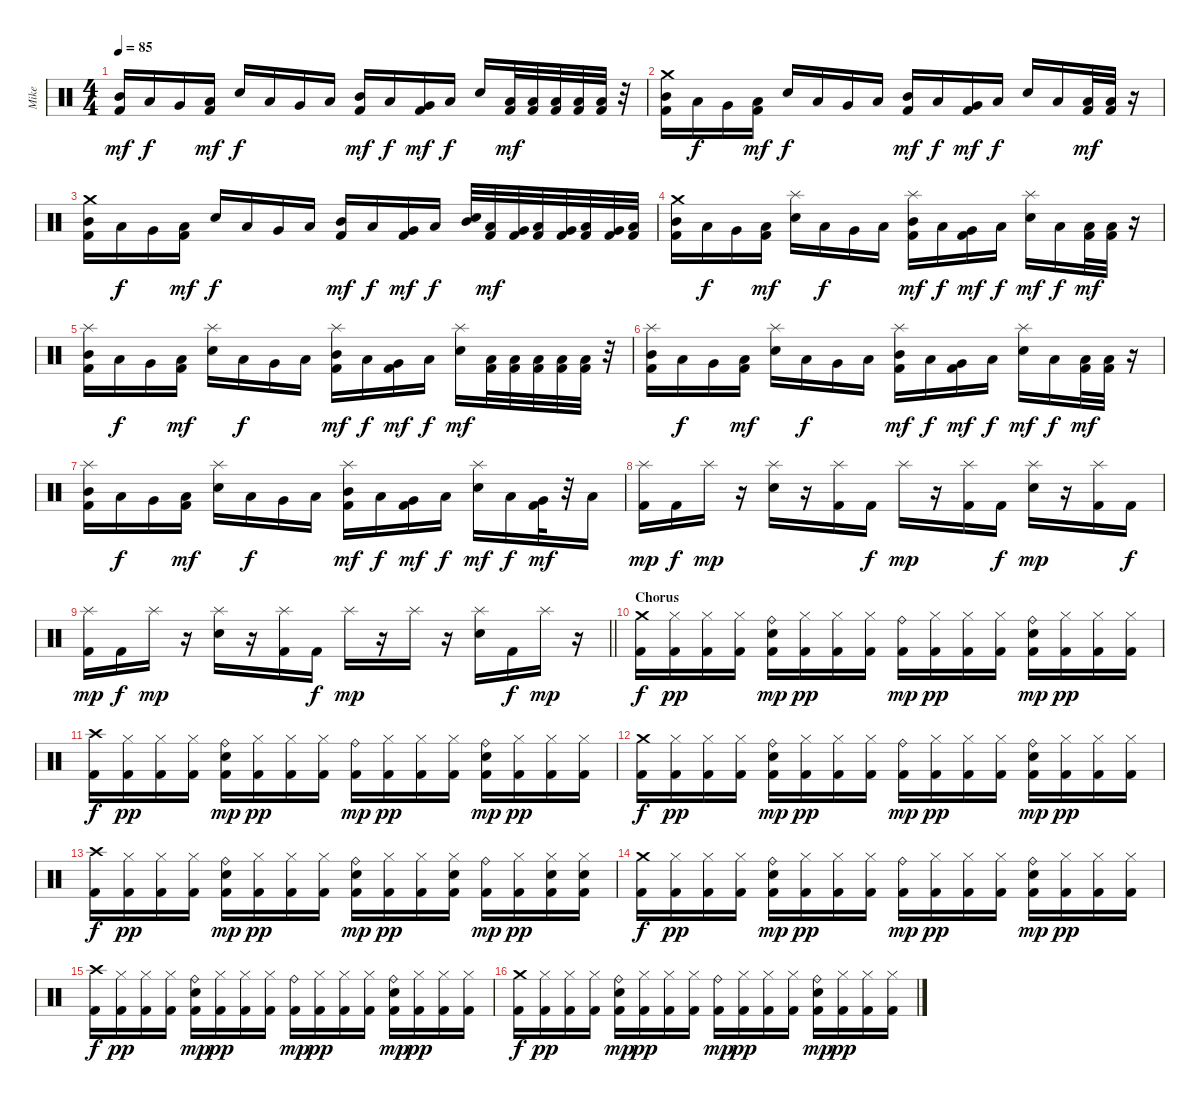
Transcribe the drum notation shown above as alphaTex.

\track ("Mike" "Mike") {instrument percussion}
\staff {score}
\articulation defaults
\ts (4 4)
\tempo 85
\clef neutral
\ks c
("Mid Tom (hit)" "Kick (hit) 2").16{dy mf} "Low Tom (hit)".16{dy f} "Very Low Tom (hit)".16 ("Low Tom (hit)" "Kick (hit) 2").16{dy mf} "Snare (hit) 2".16{dy f} "Low Tom (hit)".16 "Very Low Tom (hit)".16 "Low Floor Tom (hit)".16 ("Mid Tom (hit)" "Kick (hit) 2").16{dy mf} "Low Tom (hit)".16{dy f} ("Very Low Tom (hit)" "Kick (hit) 2").16{dy mf} "Low Tom (hit)".16{dy f} "Snare (hit) 2".16 ("Low Floor Tom (hit)" "Kick (hit) 2").32{dy mf} ("Low Floor Tom (hit)" "Kick (hit) 2").32 ("Low Floor Tom (hit)" "Kick (hit) 2").32 ("Low Floor Tom (hit)" "Kick (hit) 2").32 ("Low Floor Tom (hit)" "Kick (hit) 2").32 r.32 |
("Crash medium (hit)" "Mid Tom (hit)" "Kick (hit) 2").16 "Low Tom (hit)".16{dy f} "Very Low Tom (hit)".16 ("Low Tom (hit)" "Kick (hit) 2").16{dy mf} "Snare (hit) 2".16{dy f} "Low Tom (hit)".16 "Very Low Tom (hit)".16 "Low Floor Tom (hit)".16 ("Mid Tom (hit)" "Kick (hit) 2").16{dy mf} "Low Tom (hit)".16{dy f} ("Very Low Tom (hit)" "Kick (hit) 2").16{dy mf} "Low Tom (hit)".16{dy f} "Snare (hit) 2".16 "Low Tom (hit)".16 ("Low Floor Tom (hit)" "Kick (hit) 2").32{dy mf} ("Low Floor Tom (hit)" "Kick (hit) 2").32 r.16 |
("Crash medium (hit)" "Mid Tom (hit)" "Kick (hit) 2").16 "Low Tom (hit)".16{dy f} "Very Low Tom (hit)".16 ("Low Tom (hit)" "Kick (hit) 2").16{dy mf} "Snare (hit) 2".16{dy f} "Low Tom (hit)".16 "Very Low Tom (hit)".16 "Low Floor Tom (hit)".16 ("Mid Tom (hit)" "Kick (hit) 2").16{dy mf} "Low Tom (hit)".16{dy f} ("Very Low Tom (hit)" "Kick (hit) 2").16{dy mf} "Low Tom (hit)".16{dy f} ("Mid Tom (hit)" "Snare (hit) 2").32 ("Low Tom (hit)" "Kick (hit) 2").32{dy mf} ("Very Low Tom (hit)" "Kick (hit) 2").32 ("Low Tom (hit)" "Kick (hit) 2").32 ("Very Low Tom (hit)" "Kick (hit) 2").32 ("Low Floor Tom (hit)" "Kick (hit) 2").32 ("Very Low Tom (hit)" "Kick (hit) 2").32 ("Low Floor Tom (hit)" "Kick (hit) 2").32 |
("Crash medium (hit)" "Mid Tom (hit)" "Kick (hit) 2").16 "Low Tom (hit)".16{dy f} "Very Low Tom (hit)".16 ("Low Tom (hit)" "Kick (hit) 2").16{dy mf} ("Splash (hit)" "Snare (hit) 2").16 "Low Tom (hit)".16{dy f} "Very Low Tom (hit)".16 "Low Floor Tom (hit)".16 ("Splash (hit)" "Mid Tom (hit)" "Kick (hit) 2").16{dy mf} "Low Tom (hit)".16{dy f} ("Very Low Tom (hit)" "Kick (hit) 2").16{dy mf} "Low Tom (hit)".16{dy f} ("Splash (hit)" "Snare (hit) 2").16{dy mf} "Low Tom (hit)".16{dy f} ("Low Floor Tom (hit)" "Kick (hit) 2").32{dy mf} ("Low Floor Tom (hit)" "Kick (hit) 2").32 r.16 |
("Splash (hit)" "Mid Tom (hit)" "Kick (hit) 2").16 "Low Tom (hit)".16{dy f} "Very Low Tom (hit)".16 ("Low Tom (hit)" "Kick (hit) 2").16{dy mf} ("Splash (hit)" "Snare (hit) 2").16 "Low Tom (hit)".16{dy f} "Very Low Tom (hit)".16 "Low Floor Tom (hit)".16 ("Splash (hit)" "Mid Tom (hit)" "Kick (hit) 2").16{dy mf} "Low Tom (hit)".16{dy f} ("Very Low Tom (hit)" "Kick (hit) 2").16{dy mf} "Low Tom (hit)".16{dy f} ("Splash (hit)" "Snare (hit) 2").16{dy mf} ("Low Floor Tom (hit)" "Kick (hit) 2").32 ("Low Floor Tom (hit)" "Kick (hit) 2").32 ("Low Floor Tom (hit)" "Kick (hit) 2").32 ("Low Floor Tom (hit)" "Kick (hit) 2").32 ("Low Floor Tom (hit)" "Kick (hit) 2").32 r.32 |
("Splash (hit)" "Mid Tom (hit)" "Kick (hit) 2").16 "Low Tom (hit)".16{dy f} "Very Low Tom (hit)".16 ("Low Tom (hit)" "Kick (hit) 2").16{dy mf} ("Splash (hit)" "Snare (hit) 2").16 "Low Tom (hit)".16{dy f} "Very Low Tom (hit)".16 "Low Floor Tom (hit)".16 ("Splash (hit)" "Mid Tom (hit)" "Kick (hit) 2").16{dy mf} "Low Tom (hit)".16{dy f} ("Very Low Tom (hit)" "Kick (hit) 2").16{dy mf} "Low Tom (hit)".16{dy f} ("Splash (hit)" "Snare (hit) 2").16{dy mf} "Low Tom (hit)".16{dy f} ("Low Floor Tom (hit)" "Kick (hit) 2").32{dy mf} ("Low Floor Tom (hit)" "Kick (hit) 2").32 r.16 |
("Splash (hit)" "Mid Tom (hit)" "Kick (hit) 2").16 "Low Tom (hit)".16{dy f} "Very Low Tom (hit)".16 ("Low Tom (hit)" "Kick (hit) 2").16{dy mf} ("Splash (hit)" "Snare (hit) 2").16 "Low Tom (hit)".16{dy f} "Very Low Tom (hit)".16 "Low Floor Tom (hit)".16 ("Splash (hit)" "Mid Tom (hit)" "Kick (hit) 2").16{dy mf} "Low Tom (hit)".16{dy f} ("Very Low Tom (hit)" "Kick (hit) 2").16{dy mf} "Low Tom (hit)".16{dy f} ("Splash (hit)" "Snare (hit) 2").16{dy mf} "Low Tom (hit)".16{dy f} ("Very Low Tom (hit)" "Kick (hit) 2").32{dy mf} r.32 "Low Floor Tom (hit)".16 |
("Splash (hit)" "Kick (hit) 2").16{dy mp} "Kick (hit) 2".16{dy f} "Splash (hit)".16{dy mp} r.16 ("Splash (hit)" "Snare (hit) 2").16 r.16 ("Splash (hit)" "Kick (hit) 2").16 "Kick (hit) 2".16{dy f} "Splash (hit)".16{dy mp} r.16 ("Splash (hit)" "Kick (hit) 2").16 "Kick (hit) 2".16{dy f} ("Splash (hit)" "Snare (hit) 2").16{dy mp} r.16 ("Splash (hit)" "Kick (hit) 2").16 "Kick (hit) 2".16{dy f} |
\barLineRight lightlight
("Splash (hit)" "Kick (hit) 2").16{dy mp} "Kick (hit) 2".16{dy f} "Splash (hit)".16{dy mp} r.16 ("Splash (hit)" "Snare (hit) 2").16 r.16 ("Splash (hit)" "Kick (hit) 2").16 "Kick (hit) 2".16{dy f} "Splash (hit)".16{dy mp} r.16 "Splash (hit)".16 r.16 ("Splash (hit)" "Snare (hit) 2").16 "Kick (hit) 2".16{dy f} "Splash (hit)".16{dy mp} r.16 |
\section ("" "Chorus")
("Crash medium (hit)" "Kick (hit) 2").16{dy f} ("Hi-Hat (closed)" "Kick (hit) 2").16{dy pp} ("Hi-Hat (closed)" "Kick (hit) 2").16 ("Hi-Hat (closed)" "Kick (hit) 2").16 ("Ride (bell)" "Snare (hit) 2" "Kick (hit) 2").16{dy mp} ("Hi-Hat (closed)" "Kick (hit) 2").16{dy pp} ("Hi-Hat (closed)" "Kick (hit) 2").16 ("Hi-Hat (closed)" "Kick (hit) 2").16 ("Ride (bell)" "Kick (hit) 2").16{dy mp} ("Hi-Hat (closed)" "Kick (hit) 2").16{dy pp} ("Hi-Hat (closed)" "Kick (hit) 2").16 ("Hi-Hat (closed)" "Kick (hit) 2").16 ("Ride (bell)" "Snare (hit) 2" "Kick (hit) 2").16{dy mp} ("Hi-Hat (closed)" "Kick (hit) 2").16{dy pp} ("Hi-Hat (closed)" "Kick (hit) 2").16 ("Hi-Hat (closed)" "Kick (hit) 2").16 |
("Crash high (hit)" "Kick (hit) 2").16{dy f} ("Hi-Hat (closed)" "Kick (hit) 2").16{dy pp} ("Hi-Hat (closed)" "Kick (hit) 2").16 ("Hi-Hat (closed)" "Kick (hit) 2").16 ("Ride (bell)" "Snare (hit) 2" "Kick (hit) 2").16{dy mp} ("Hi-Hat (closed)" "Kick (hit) 2").16{dy pp} ("Hi-Hat (closed)" "Kick (hit) 2").16 ("Hi-Hat (closed)" "Kick (hit) 2").16 ("Ride (bell)" "Kick (hit) 2").16{dy mp} ("Hi-Hat (closed)" "Kick (hit) 2").16{dy pp} ("Hi-Hat (closed)" "Kick (hit) 2").16 ("Hi-Hat (closed)" "Kick (hit) 2").16 ("Ride (bell)" "Snare (hit) 2" "Kick (hit) 2").16{dy mp} ("Hi-Hat (closed)" "Kick (hit) 2").16{dy pp} ("Hi-Hat (closed)" "Kick (hit) 2").16 ("Hi-Hat (closed)" "Kick (hit) 2").16 |
("Crash medium (hit)" "Kick (hit) 2").16{dy f} ("Hi-Hat (closed)" "Kick (hit) 2").16{dy pp} ("Hi-Hat (closed)" "Kick (hit) 2").16 ("Hi-Hat (closed)" "Kick (hit) 2").16 ("Ride (bell)" "Snare (hit) 2" "Kick (hit) 2").16{dy mp} ("Hi-Hat (closed)" "Kick (hit) 2").16{dy pp} ("Hi-Hat (closed)" "Kick (hit) 2").16 ("Hi-Hat (closed)" "Kick (hit) 2").16 ("Ride (bell)" "Kick (hit) 2").16{dy mp} ("Hi-Hat (closed)" "Kick (hit) 2").16{dy pp} ("Hi-Hat (closed)" "Kick (hit) 2").16 ("Hi-Hat (closed)" "Kick (hit) 2").16 ("Ride (bell)" "Snare (hit) 2" "Kick (hit) 2").16{dy mp} ("Hi-Hat (closed)" "Kick (hit) 2").16{dy pp} ("Hi-Hat (closed)" "Kick (hit) 2").16 ("Hi-Hat (closed)" "Kick (hit) 2").16 |
("Crash high (hit)" "Kick (hit) 2").16{dy f} ("Hi-Hat (closed)" "Kick (hit) 2").16{dy pp} ("Hi-Hat (closed)" "Kick (hit) 2").16 ("Hi-Hat (closed)" "Kick (hit) 2").16 ("Ride (bell)" "Snare (hit) 2" "Kick (hit) 2").16{dy mp} ("Hi-Hat (closed)" "Kick (hit) 2").16{dy pp} ("Hi-Hat (closed)" "Kick (hit) 2").16 ("Hi-Hat (closed)" "Kick (hit) 2").16 ("Ride (bell)" "Snare (hit) 2" "Kick (hit) 2").16{dy mp} ("Hi-Hat (closed)" "Kick (hit) 2").16{dy pp} ("Hi-Hat (closed)" "Kick (hit) 2").16 ("Hi-Hat (closed)" "Snare (hit) 2" "Kick (hit) 2").16 ("Ride (bell)" "Kick (hit) 2").16{dy mp} ("Hi-Hat (closed)" "Kick (hit) 2").16{dy pp} ("Hi-Hat (closed)" "Snare (hit) 2" "Kick (hit) 2").16 ("Hi-Hat (closed)" "Snare (hit) 2" "Kick (hit) 2").16 |
("Crash medium (hit)" "Kick (hit) 2").16{dy f} ("Hi-Hat (closed)" "Kick (hit) 2").16{dy pp} ("Hi-Hat (closed)" "Kick (hit) 2").16 ("Hi-Hat (closed)" "Kick (hit) 2").16 ("Ride (bell)" "Snare (hit) 2" "Kick (hit) 2").16{dy mp} ("Hi-Hat (closed)" "Kick (hit) 2").16{dy pp} ("Hi-Hat (closed)" "Kick (hit) 2").16 ("Hi-Hat (closed)" "Kick (hit) 2").16 ("Ride (bell)" "Kick (hit) 2").16{dy mp} ("Hi-Hat (closed)" "Kick (hit) 2").16{dy pp} ("Hi-Hat (closed)" "Kick (hit) 2").16 ("Hi-Hat (closed)" "Kick (hit) 2").16 ("Ride (bell)" "Snare (hit) 2" "Kick (hit) 2").16{dy mp} ("Hi-Hat (closed)" "Kick (hit) 2").16{dy pp} ("Hi-Hat (closed)" "Kick (hit) 2").16 ("Hi-Hat (closed)" "Kick (hit) 2").16 |
("Crash high (hit)" "Kick (hit) 2").16{dy f} ("Hi-Hat (closed)" "Kick (hit) 2").16{dy pp} ("Hi-Hat (closed)" "Kick (hit) 2").16 ("Hi-Hat (closed)" "Kick (hit) 2").16 ("Ride (bell)" "Snare (hit) 2" "Kick (hit) 2").16{dy mp} ("Hi-Hat (closed)" "Kick (hit) 2").16{dy pp} ("Hi-Hat (closed)" "Kick (hit) 2").16 ("Hi-Hat (closed)" "Kick (hit) 2").16 ("Ride (bell)" "Kick (hit) 2").16{dy mp} ("Hi-Hat (closed)" "Kick (hit) 2").16{dy pp} ("Hi-Hat (closed)" "Kick (hit) 2").16 ("Hi-Hat (closed)" "Kick (hit) 2").16 ("Ride (bell)" "Snare (hit) 2" "Kick (hit) 2").16{dy mp} ("Hi-Hat (closed)" "Kick (hit) 2").16{dy pp} ("Hi-Hat (closed)" "Kick (hit) 2").16 ("Hi-Hat (closed)" "Kick (hit) 2").16 |
("Crash medium (hit)" "Kick (hit) 2").16{dy f} ("Hi-Hat (closed)" "Kick (hit) 2").16{dy pp} ("Hi-Hat (closed)" "Kick (hit) 2").16 ("Hi-Hat (closed)" "Kick (hit) 2").16 ("Ride (bell)" "Snare (hit) 2" "Kick (hit) 2").16{dy mp} ("Hi-Hat (closed)" "Kick (hit) 2").16{dy pp} ("Hi-Hat (closed)" "Kick (hit) 2").16 ("Hi-Hat (closed)" "Kick (hit) 2").16 ("Ride (bell)" "Kick (hit) 2").16{dy mp} ("Hi-Hat (closed)" "Kick (hit) 2").16{dy pp} ("Hi-Hat (closed)" "Kick (hit) 2").16 ("Hi-Hat (closed)" "Kick (hit) 2").16 ("Ride (bell)" "Snare (hit) 2" "Kick (hit) 2").16{dy mp} ("Hi-Hat (closed)" "Kick (hit) 2").16{dy pp} ("Hi-Hat (closed)" "Kick (hit) 2").16 ("Hi-Hat (closed)" "Kick (hit) 2").16
